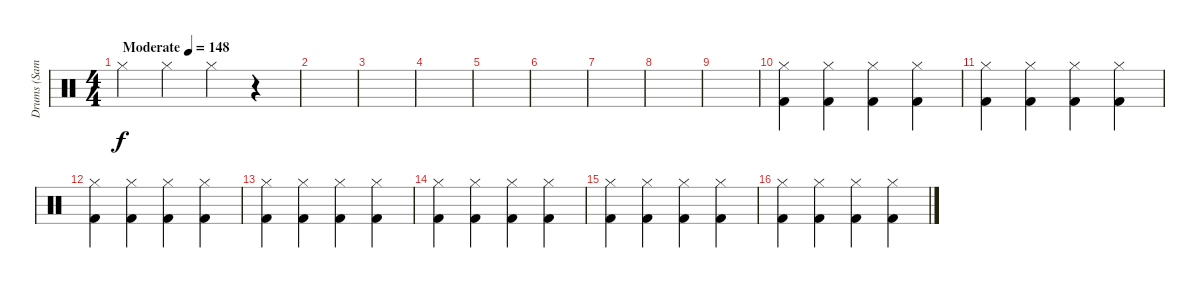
\track ("Drums (Samuelson)" "Drums (Sam") {instrument percussion}
\staff
\articulation defaults
\ts (4 4)
\tempo (148 "Moderate")
\clef neutral
\ks c "Hi-Hat (closed)".4{dy f} "Hi-Hat (closed)".4 "Hi-Hat (closed)".4
r.4 |
|
|
|
|
|
|
|
|
("Hi-Hat (closed)" "Kick (hit) 2").4 ("Hi-Hat (closed)" "Kick (hit) 2").4 ("Hi-Hat (closed)" "Kick (hit) 2").4 ("Hi-Hat (closed)" "Kick (hit) 2").4 |
("Hi-Hat (closed)" "Kick (hit) 2").4 ("Hi-Hat (closed)" "Kick (hit) 2").4 ("Hi-Hat (closed)" "Kick (hit) 2").4 ("Hi-Hat (closed)" "Kick (hit) 2").4 |
("Hi-Hat (closed)" "Kick (hit) 2").4 ("Hi-Hat (closed)" "Kick (hit) 2").4 ("Hi-Hat (closed)" "Kick (hit) 2").4 ("Hi-Hat (closed)" "Kick (hit) 2").4 |
("Hi-Hat (closed)" "Kick (hit) 2").4 ("Hi-Hat (closed)" "Kick (hit) 2").4 ("Hi-Hat (closed)" "Kick (hit) 2").4 ("Hi-Hat (closed)" "Kick (hit) 2").4 |
("Hi-Hat (closed)" "Kick (hit) 2").4 ("Hi-Hat (closed)" "Kick (hit) 2").4 ("Hi-Hat (closed)" "Kick (hit) 2").4 ("Hi-Hat (closed)" "Kick (hit) 2").4 |
("Hi-Hat (closed)" "Kick (hit) 2").4 ("Hi-Hat (closed)" "Kick (hit) 2").4 ("Hi-Hat (closed)" "Kick (hit) 2").4 ("Hi-Hat (closed)" "Kick (hit) 2").4 |
("Hi-Hat (closed)" "Kick (hit) 2").4 ("Hi-Hat (closed)" "Kick (hit) 2").4 ("Hi-Hat (closed)" "Kick (hit) 2").4 ("Hi-Hat (closed)" "Kick (hit) 2").4
